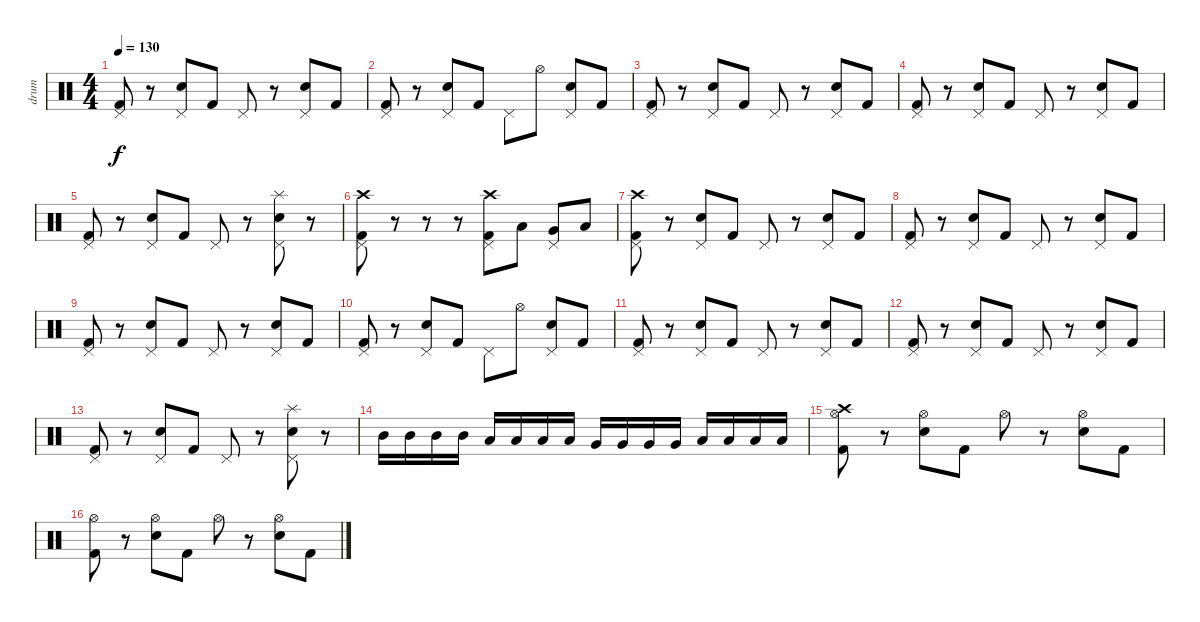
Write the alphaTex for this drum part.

\track ("drum" "drum") {instrument percussion}
\staff {score}
\articulation defaults
\ts (4 4)
\tempo 130
\clef neutral
\ks c
("Pedal Hi-Hat (hit)" "Kick (hit) 2").8{dy f} r.8 ("Pedal Hi-Hat (hit)" "Electric Snare (hit)").8 "Kick (hit) 2".8 "Pedal Hi-Hat (hit)".8 r.8 ("Pedal Hi-Hat (hit)" "Electric Snare (hit)").8 "Kick (hit) 2".8 |
("Pedal Hi-Hat (hit)" "Kick (hit) 2").8 r.8 ("Pedal Hi-Hat (hit)" "Electric Snare (hit)").8 "Kick (hit) 2".8 "Pedal Hi-Hat (hit)".8 "Hi-Hat (open)".8 ("Pedal Hi-Hat (hit)" "Electric Snare (hit)").8 "Kick (hit) 2".8 |
("Pedal Hi-Hat (hit)" "Kick (hit) 2").8 r.8 ("Pedal Hi-Hat (hit)" "Electric Snare (hit)").8 "Kick (hit) 2".8 "Pedal Hi-Hat (hit)".8 r.8 ("Pedal Hi-Hat (hit)" "Electric Snare (hit)").8 "Kick (hit) 2".8 |
("Pedal Hi-Hat (hit)" "Kick (hit) 2").8 r.8 ("Pedal Hi-Hat (hit)" "Electric Snare (hit)").8 "Kick (hit) 2".8 "Pedal Hi-Hat (hit)".8 r.8 ("Pedal Hi-Hat (hit)" "Electric Snare (hit)").8 "Kick (hit) 2".8 |
("Pedal Hi-Hat (hit)" "Kick (hit) 2").8 r.8 ("Pedal Hi-Hat (hit)" "Electric Snare (hit)").8 "Kick (hit) 2".8 "Pedal Hi-Hat (hit)".8 r.8 ("Splash (hit)" "Pedal Hi-Hat (hit)" "Electric Snare (hit)").8 r.8 |
("Crash high (hit)" "Pedal Hi-Hat (hit)" "Kick (hit) 2").8 r.8 r.8 r.8 ("Crash high (hit)" "Pedal Hi-Hat (hit)" "Kick (hit) 2").8 "Low Tom (hit)".8 ("Pedal Hi-Hat (hit)" "Very Low Tom (hit)").8 "Low Floor Tom (hit)".8 |
("Crash high (hit)" "Pedal Hi-Hat (hit)" "Kick (hit) 2").8 r.8 ("Pedal Hi-Hat (hit)" "Electric Snare (hit)").8 "Kick (hit) 2".8 "Pedal Hi-Hat (hit)".8 r.8 ("Pedal Hi-Hat (hit)" "Electric Snare (hit)").8 "Kick (hit) 2".8 |
("Pedal Hi-Hat (hit)" "Kick (hit) 2").8 r.8 ("Pedal Hi-Hat (hit)" "Electric Snare (hit)").8 "Kick (hit) 2".8 "Pedal Hi-Hat (hit)".8 r.8 ("Pedal Hi-Hat (hit)" "Electric Snare (hit)").8 "Kick (hit) 2".8 |
("Pedal Hi-Hat (hit)" "Kick (hit) 2").8 r.8 ("Pedal Hi-Hat (hit)" "Electric Snare (hit)").8 "Kick (hit) 2".8 "Pedal Hi-Hat (hit)".8 r.8 ("Pedal Hi-Hat (hit)" "Electric Snare (hit)").8 "Kick (hit) 2".8 |
("Pedal Hi-Hat (hit)" "Kick (hit) 2").8 r.8 ("Pedal Hi-Hat (hit)" "Electric Snare (hit)").8 "Kick (hit) 2".8 "Pedal Hi-Hat (hit)".8 "Hi-Hat (open)".8 ("Pedal Hi-Hat (hit)" "Electric Snare (hit)").8 "Kick (hit) 2".8 |
("Pedal Hi-Hat (hit)" "Kick (hit) 2").8 r.8 ("Pedal Hi-Hat (hit)" "Electric Snare (hit)").8 "Kick (hit) 2".8 "Pedal Hi-Hat (hit)".8 r.8 ("Pedal Hi-Hat (hit)" "Electric Snare (hit)").8 "Kick (hit) 2".8 |
("Pedal Hi-Hat (hit)" "Kick (hit) 2").8 r.8 ("Pedal Hi-Hat (hit)" "Electric Snare (hit)").8 "Kick (hit) 2".8 "Pedal Hi-Hat (hit)".8 r.8 ("Pedal Hi-Hat (hit)" "Electric Snare (hit)").8 "Kick (hit) 2".8 |
("Pedal Hi-Hat (hit)" "Kick (hit) 2").8 r.8 ("Pedal Hi-Hat (hit)" "Electric Snare (hit)").8 "Kick (hit) 2".8 "Pedal Hi-Hat (hit)".8 r.8 ("Splash (hit)" "Pedal Hi-Hat (hit)" "Electric Snare (hit)").8 r.8 |
"Mid Tom (hit)".16 "Mid Tom (hit)".16 "Mid Tom (hit)".16 "Mid Tom (hit)".16 "Low Tom (hit)".16 "Low Tom (hit)".16 "Low Tom (hit)".16 "Low Tom (hit)".16 "Very Low Tom (hit)".16 "Very Low Tom (hit)".16 "Very Low Tom (hit)".16 "Very Low Tom (hit)".16 "Low Floor Tom (hit)".16 "Low Floor Tom (hit)".16 "Low Floor Tom (hit)".16 "Low Floor Tom (hit)".16 |
("Crash high (hit)" "Hi-Hat (open)" "Kick (hit) 2").8 r.8 ("Hi-Hat (open)" "Electric Snare (hit)").8 "Kick (hit) 2".8 "Hi-Hat (open)".8 r.8 ("Hi-Hat (open)" "Electric Snare (hit)").8 "Kick (hit) 2".8 |
("Hi-Hat (open)" "Kick (hit) 2").8 r.8 ("Hi-Hat (open)" "Electric Snare (hit)").8 "Kick (hit) 2".8 "Hi-Hat (open)".8 r.8 ("Hi-Hat (open)" "Electric Snare (hit)").8 "Kick (hit) 2".8
